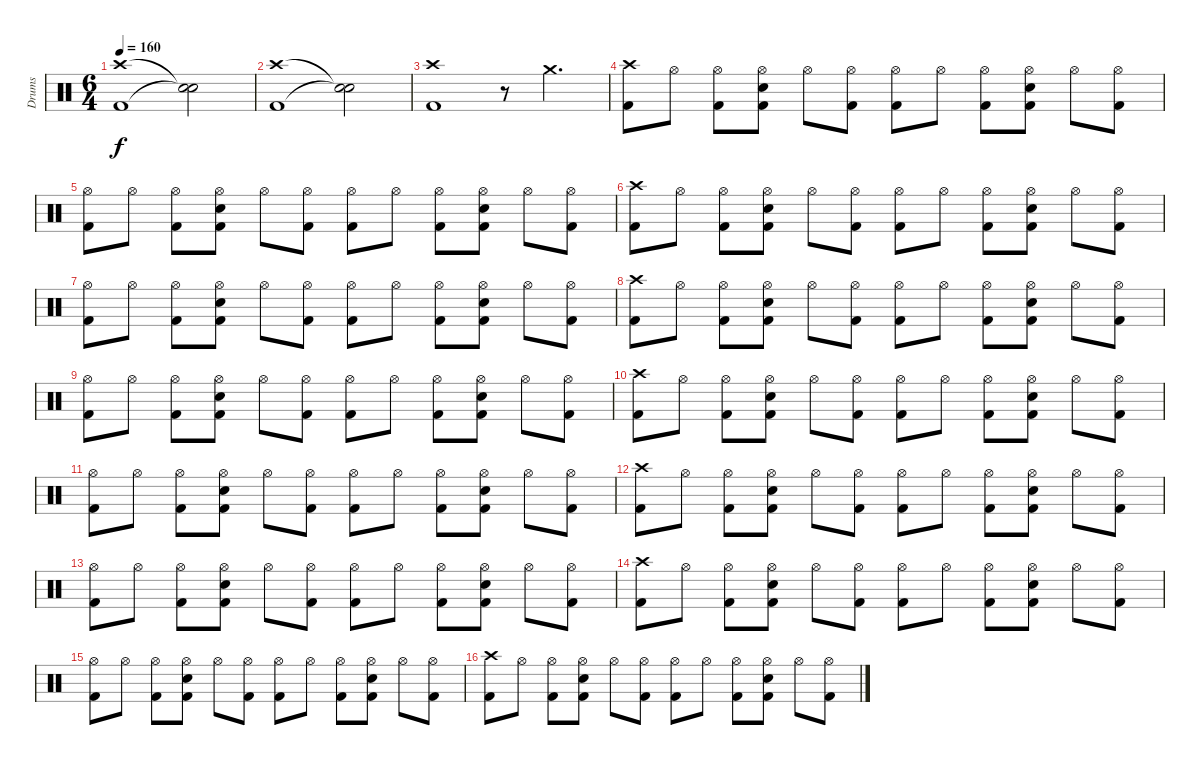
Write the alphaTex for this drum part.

\track ("Drums" "Drums") {instrument percussion}
\staff {score}
\articulation defaults
\ts (6 4)
\tempo 160
\clef neutral
\ks c
("Crash high (hit)" "Kick (hit) 2").1{dy f} ("Snare (hit)"{t} "Snare (hit)"{t}).2 |
("Crash high (hit)" "Kick (hit) 2").1 ("Snare (hit)"{t} "Snare (hit)"{t}).2 |
("Crash high (hit)" "Kick (hit) 2").1 r.8 "Crash medium (hit)".4{d} |
("Crash high (hit)" "Kick (hit) 2").8 "Hi-Hat (open)".8 ("Hi-Hat (open)" "Kick (hit) 2").8 ("Hi-Hat (open)" "Snare (hit) 2" "Kick (hit) 2").8 "Hi-Hat (open)".8 ("Hi-Hat (open)" "Kick (hit) 2").8 ("Hi-Hat (open)" "Kick (hit) 2").8 "Hi-Hat (open)".8 ("Hi-Hat (open)" "Kick (hit) 2").8 ("Hi-Hat (open)" "Snare (hit) 2" "Kick (hit) 2").8 "Hi-Hat (open)".8 ("Hi-Hat (open)" "Kick (hit) 2").8 |
("Hi-Hat (open)" "Kick (hit) 2").8 "Hi-Hat (open)".8 ("Hi-Hat (open)" "Kick (hit) 2").8 ("Hi-Hat (open)" "Snare (hit) 2" "Kick (hit) 2").8 "Hi-Hat (open)".8 ("Hi-Hat (open)" "Kick (hit) 2").8 ("Hi-Hat (open)" "Kick (hit) 2").8 "Hi-Hat (open)".8 ("Hi-Hat (open)" "Kick (hit) 2").8 ("Hi-Hat (open)" "Snare (hit) 2" "Kick (hit) 2").8 "Hi-Hat (open)".8 ("Hi-Hat (open)" "Kick (hit) 2").8 |
("Crash high (hit)" "Kick (hit) 2").8 "Hi-Hat (open)".8 ("Hi-Hat (open)" "Kick (hit) 2").8 ("Hi-Hat (open)" "Snare (hit) 2" "Kick (hit) 2").8 "Hi-Hat (open)".8 ("Hi-Hat (open)" "Kick (hit) 2").8 ("Hi-Hat (open)" "Kick (hit) 2").8 "Hi-Hat (open)".8 ("Hi-Hat (open)" "Kick (hit) 2").8 ("Hi-Hat (open)" "Snare (hit) 2" "Kick (hit) 2").8 "Hi-Hat (open)".8 ("Hi-Hat (open)" "Kick (hit) 2").8 |
("Hi-Hat (open)" "Kick (hit) 2").8 "Hi-Hat (open)".8 ("Hi-Hat (open)" "Kick (hit) 2").8 ("Hi-Hat (open)" "Snare (hit) 2" "Kick (hit) 2").8 "Hi-Hat (open)".8 ("Hi-Hat (open)" "Kick (hit) 2").8 ("Hi-Hat (open)" "Kick (hit) 2").8 "Hi-Hat (open)".8 ("Hi-Hat (open)" "Kick (hit) 2").8 ("Hi-Hat (open)" "Snare (hit) 2" "Kick (hit) 2").8 "Hi-Hat (open)".8 ("Hi-Hat (open)" "Kick (hit) 2").8 |
("Crash high (hit)" "Kick (hit) 2").8 "Hi-Hat (open)".8 ("Hi-Hat (open)" "Kick (hit) 2").8 ("Hi-Hat (open)" "Snare (hit) 2" "Kick (hit) 2").8 "Hi-Hat (open)".8 ("Hi-Hat (open)" "Kick (hit) 2").8 ("Hi-Hat (open)" "Kick (hit) 2").8 "Hi-Hat (open)".8 ("Hi-Hat (open)" "Kick (hit) 2").8 ("Hi-Hat (open)" "Snare (hit) 2" "Kick (hit) 2").8 "Hi-Hat (open)".8 ("Hi-Hat (open)" "Kick (hit) 2").8 |
("Hi-Hat (open)" "Kick (hit) 2").8 "Hi-Hat (open)".8 ("Hi-Hat (open)" "Kick (hit) 2").8 ("Hi-Hat (open)" "Snare (hit) 2" "Kick (hit) 2").8 "Hi-Hat (open)".8 ("Hi-Hat (open)" "Kick (hit) 2").8 ("Hi-Hat (open)" "Kick (hit) 2").8 "Hi-Hat (open)".8 ("Hi-Hat (open)" "Kick (hit) 2").8 ("Hi-Hat (open)" "Snare (hit) 2" "Kick (hit) 2").8 "Hi-Hat (open)".8 ("Hi-Hat (open)" "Kick (hit) 2").8 |
("Crash high (hit)" "Kick (hit) 2").8 "Hi-Hat (open)".8 ("Hi-Hat (open)" "Kick (hit) 2").8 ("Hi-Hat (open)" "Snare (hit) 2" "Kick (hit) 2").8 "Hi-Hat (open)".8 ("Hi-Hat (open)" "Kick (hit) 2").8 ("Hi-Hat (open)" "Kick (hit) 2").8 "Hi-Hat (open)".8 ("Hi-Hat (open)" "Kick (hit) 2").8 ("Hi-Hat (open)" "Snare (hit) 2" "Kick (hit) 2").8 "Hi-Hat (open)".8 ("Hi-Hat (open)" "Kick (hit) 2").8 |
("Hi-Hat (open)" "Kick (hit) 2").8 "Hi-Hat (open)".8 ("Hi-Hat (open)" "Kick (hit) 2").8 ("Hi-Hat (open)" "Snare (hit) 2" "Kick (hit) 2").8 "Hi-Hat (open)".8 ("Hi-Hat (open)" "Kick (hit) 2").8 ("Hi-Hat (open)" "Kick (hit) 2").8 "Hi-Hat (open)".8 ("Hi-Hat (open)" "Kick (hit) 2").8 ("Hi-Hat (open)" "Snare (hit) 2" "Kick (hit) 2").8 "Hi-Hat (open)".8 ("Hi-Hat (open)" "Kick (hit) 2").8 |
("Crash high (hit)" "Kick (hit) 2").8 "Hi-Hat (open)".8 ("Hi-Hat (open)" "Kick (hit) 2").8 ("Hi-Hat (open)" "Snare (hit) 2" "Kick (hit) 2").8 "Hi-Hat (open)".8 ("Hi-Hat (open)" "Kick (hit) 2").8 ("Hi-Hat (open)" "Kick (hit) 2").8 "Hi-Hat (open)".8 ("Hi-Hat (open)" "Kick (hit) 2").8 ("Hi-Hat (open)" "Snare (hit) 2" "Kick (hit) 2").8 "Hi-Hat (open)".8 ("Hi-Hat (open)" "Kick (hit) 2").8 |
("Hi-Hat (open)" "Kick (hit) 2").8 "Hi-Hat (open)".8 ("Hi-Hat (open)" "Kick (hit) 2").8 ("Hi-Hat (open)" "Snare (hit) 2" "Kick (hit) 2").8 "Hi-Hat (open)".8 ("Hi-Hat (open)" "Kick (hit) 2").8 ("Hi-Hat (open)" "Kick (hit) 2").8 "Hi-Hat (open)".8 ("Hi-Hat (open)" "Kick (hit) 2").8 ("Hi-Hat (open)" "Snare (hit) 2" "Kick (hit) 2").8 "Hi-Hat (open)".8 ("Hi-Hat (open)" "Kick (hit) 2").8 |
("Crash high (hit)" "Kick (hit) 2").8 "Hi-Hat (open)".8 ("Hi-Hat (open)" "Kick (hit) 2").8 ("Hi-Hat (open)" "Snare (hit) 2" "Kick (hit) 2").8 "Hi-Hat (open)".8 ("Hi-Hat (open)" "Kick (hit) 2").8 ("Hi-Hat (open)" "Kick (hit) 2").8 "Hi-Hat (open)".8 ("Hi-Hat (open)" "Kick (hit) 2").8 ("Hi-Hat (open)" "Snare (hit) 2" "Kick (hit) 2").8 "Hi-Hat (open)".8 ("Hi-Hat (open)" "Kick (hit) 2").8 |
("Hi-Hat (open)" "Kick (hit) 2").8 "Hi-Hat (open)".8 ("Hi-Hat (open)" "Kick (hit) 2").8 ("Hi-Hat (open)" "Snare (hit) 2" "Kick (hit) 2").8 "Hi-Hat (open)".8 ("Hi-Hat (open)" "Kick (hit) 2").8 ("Hi-Hat (open)" "Kick (hit) 2").8 "Hi-Hat (open)".8 ("Hi-Hat (open)" "Kick (hit) 2").8 ("Hi-Hat (open)" "Snare (hit) 2" "Kick (hit) 2").8 "Hi-Hat (open)".8 ("Hi-Hat (open)" "Kick (hit) 2").8 |
("Crash high (hit)" "Kick (hit) 2").8 "Hi-Hat (open)".8 ("Hi-Hat (open)" "Kick (hit) 2").8 ("Hi-Hat (open)" "Snare (hit) 2" "Kick (hit) 2").8 "Hi-Hat (open)".8 ("Hi-Hat (open)" "Kick (hit) 2").8 ("Hi-Hat (open)" "Kick (hit) 2").8 "Hi-Hat (open)".8 ("Hi-Hat (open)" "Kick (hit) 2").8 ("Hi-Hat (open)" "Snare (hit) 2" "Kick (hit) 2").8 "Hi-Hat (open)".8 ("Hi-Hat (open)" "Kick (hit) 2").8
